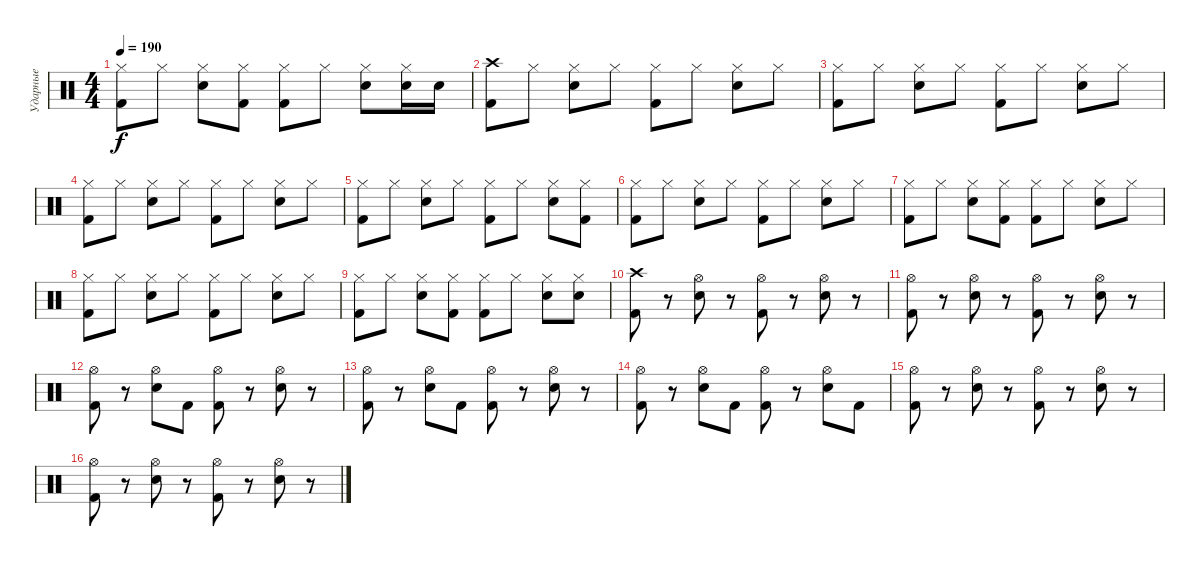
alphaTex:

\track ("Ударные" "Ударные") {instrument percussion}
\staff {score}
\articulation defaults
\ts (4 4)
\tempo 190
\clef neutral
\ks c
("Hi-Hat (closed)" "Kick (hit) 2").8{dy f} "Hi-Hat (closed)".8 ("Hi-Hat (closed)" "Electric Snare (hit)").8 ("Hi-Hat (closed)" "Kick (hit) 2").8 ("Hi-Hat (closed)" "Kick (hit) 2").8 "Hi-Hat (closed)".8 ("Hi-Hat (closed)" "Electric Snare (hit)").8 ("Hi-Hat (closed)" "Electric Snare (hit)").16 "Electric Snare (hit)".16 |
("Crash high (hit)" "Kick (hit) 2").8 "Hi-Hat (closed)".8 ("Hi-Hat (closed)" "Electric Snare (hit)").8 "Hi-Hat (closed)".8 ("Hi-Hat (closed)" "Kick (hit) 2").8 "Hi-Hat (closed)".8 ("Hi-Hat (closed)" "Electric Snare (hit)").8 "Hi-Hat (closed)".8 |
("Hi-Hat (closed)" "Kick (hit) 2").8 "Hi-Hat (closed)".8 ("Hi-Hat (closed)" "Electric Snare (hit)").8 "Hi-Hat (closed)".8 ("Hi-Hat (closed)" "Kick (hit) 2").8 "Hi-Hat (closed)".8 ("Hi-Hat (closed)" "Electric Snare (hit)").8 "Hi-Hat (closed)".8 |
("Hi-Hat (closed)" "Kick (hit) 2").8 "Hi-Hat (closed)".8 ("Hi-Hat (closed)" "Electric Snare (hit)").8 "Hi-Hat (closed)".8 ("Hi-Hat (closed)" "Kick (hit) 2").8 "Hi-Hat (closed)".8 ("Hi-Hat (closed)" "Electric Snare (hit)").8 "Hi-Hat (closed)".8 |
("Hi-Hat (closed)" "Kick (hit) 2").8 "Hi-Hat (closed)".8 ("Hi-Hat (closed)" "Electric Snare (hit)").8 "Hi-Hat (closed)".8 ("Hi-Hat (closed)" "Kick (hit) 2").8 "Hi-Hat (closed)".8 ("Hi-Hat (closed)" "Electric Snare (hit)").8 ("Hi-Hat (closed)" "Kick (hit) 2").8 |
("Hi-Hat (closed)" "Kick (hit) 2").8 "Hi-Hat (closed)".8 ("Hi-Hat (closed)" "Electric Snare (hit)").8 "Hi-Hat (closed)".8 ("Hi-Hat (closed)" "Kick (hit) 2").8 "Hi-Hat (closed)".8 ("Hi-Hat (closed)" "Electric Snare (hit)").8 "Hi-Hat (closed)".8 |
("Hi-Hat (closed)" "Kick (hit) 2").8 "Hi-Hat (closed)".8 ("Hi-Hat (closed)" "Electric Snare (hit)").8 ("Hi-Hat (closed)" "Kick (hit) 2").8 ("Hi-Hat (closed)" "Kick (hit) 2").8 "Hi-Hat (closed)".8 ("Hi-Hat (closed)" "Electric Snare (hit)").8 "Hi-Hat (closed)".8 |
("Hi-Hat (closed)" "Kick (hit) 2").8 "Hi-Hat (closed)".8 ("Hi-Hat (closed)" "Electric Snare (hit)").8 "Hi-Hat (closed)".8 ("Hi-Hat (closed)" "Kick (hit) 2").8 "Hi-Hat (closed)".8 ("Hi-Hat (closed)" "Electric Snare (hit)").8 "Hi-Hat (closed)".8 |
("Hi-Hat (closed)" "Kick (hit) 2").8 "Hi-Hat (closed)".8 ("Hi-Hat (closed)" "Electric Snare (hit)").8 ("Hi-Hat (closed)" "Kick (hit) 2").8 ("Hi-Hat (closed)" "Kick (hit) 2").8 "Hi-Hat (closed)".8 ("Hi-Hat (closed)" "Electric Snare (hit)").8 ("Hi-Hat (closed)" "Electric Snare (hit)").8 |
("Crash high (hit)" "Kick (hit) 2").8 r.8 ("Hi-Hat (open)" "Electric Snare (hit)").8 r.8 ("Hi-Hat (open)" "Kick (hit) 2").8 r.8 ("Hi-Hat (open)" "Electric Snare (hit)").8 r.8 |
("Hi-Hat (open)" "Kick (hit) 2").8 r.8 ("Hi-Hat (open)" "Electric Snare (hit)").8 r.8 ("Hi-Hat (open)" "Kick (hit) 2").8 r.8 ("Hi-Hat (open)" "Electric Snare (hit)").8 r.8 |
("Hi-Hat (open)" "Kick (hit) 2").8 r.8 ("Hi-Hat (open)" "Electric Snare (hit)").8 "Kick (hit) 2".8 ("Hi-Hat (open)" "Kick (hit) 2").8 r.8 ("Hi-Hat (open)" "Electric Snare (hit)").8 r.8 |
("Hi-Hat (open)" "Kick (hit) 2").8 r.8 ("Hi-Hat (open)" "Electric Snare (hit)").8 "Kick (hit) 2".8 ("Hi-Hat (open)" "Kick (hit) 2").8 r.8 ("Hi-Hat (open)" "Electric Snare (hit)").8 r.8 |
("Hi-Hat (open)" "Kick (hit) 2").8 r.8 ("Hi-Hat (open)" "Electric Snare (hit)").8 "Kick (hit) 2".8 ("Hi-Hat (open)" "Kick (hit) 2").8 r.8 ("Hi-Hat (open)" "Electric Snare (hit)").8 "Kick (hit) 2".8 |
("Hi-Hat (open)" "Kick (hit) 2").8 r.8 ("Hi-Hat (open)" "Electric Snare (hit)").8 r.8 ("Hi-Hat (open)" "Kick (hit) 2").8 r.8 ("Hi-Hat (open)" "Electric Snare (hit)").8 r.8 |
("Hi-Hat (open)" "Kick (hit) 2").8 r.8 ("Hi-Hat (open)" "Electric Snare (hit)").8 r.8 ("Hi-Hat (open)" "Kick (hit) 2").8 r.8 ("Hi-Hat (open)" "Electric Snare (hit)").8 r.8
